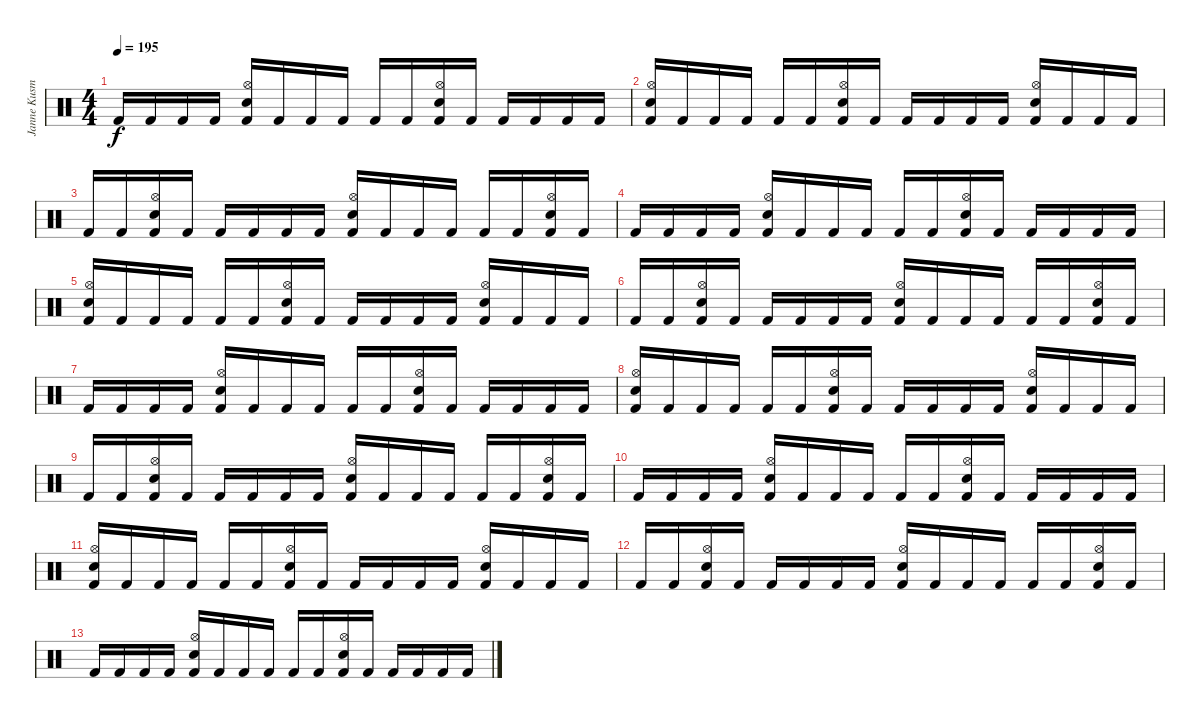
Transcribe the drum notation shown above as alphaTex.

\track ("Janne Kusmin" "Janne Kusm") {instrument percussion}
\staff {score}
\articulation defaults
\ts (4 4)
\tempo 195
\clef neutral
\ks c "Kick (hit) 2".16{dy f} "Kick (hit) 2".16 "Kick (hit) 2".16 "Kick (hit) 2".16
("Hi-Hat (open)" "Snare (hit) 2" "Kick (hit) 2").16 "Kick (hit) 2".16 "Kick (hit) 2".16 "Kick (hit) 2".16 "Kick (hit) 2".16 "Kick (hit) 2".16 ("Hi-Hat (open)" "Snare (hit) 2" "Kick (hit) 2").16 "Kick (hit) 2".16 "Kick (hit) 2".16 "Kick (hit) 2".16 "Kick (hit) 2".16 "Kick (hit) 2".16 |
("Hi-Hat (open)" "Snare (hit) 2" "Kick (hit) 2").16 "Kick (hit) 2".16 "Kick (hit) 2".16 "Kick (hit) 2".16 "Kick (hit) 2".16 "Kick (hit) 2".16 ("Hi-Hat (open)" "Snare (hit) 2" "Kick (hit) 2").16 "Kick (hit) 2".16 "Kick (hit) 2".16 "Kick (hit) 2".16 "Kick (hit) 2".16 "Kick (hit) 2".16 ("Hi-Hat (open)" "Snare (hit) 2" "Kick (hit) 2").16 "Kick (hit) 2".16 "Kick (hit) 2".16 "Kick (hit) 2".16 |
"Kick (hit) 2".16 "Kick (hit) 2".16 ("Hi-Hat (open)" "Snare (hit) 2" "Kick (hit) 2").16 "Kick (hit) 2".16 "Kick (hit) 2".16 "Kick (hit) 2".16 "Kick (hit) 2".16 "Kick (hit) 2".16 ("Hi-Hat (open)" "Snare (hit) 2" "Kick (hit) 2").16 "Kick (hit) 2".16 "Kick (hit) 2".16 "Kick (hit) 2".16 "Kick (hit) 2".16 "Kick (hit) 2".16 ("Hi-Hat (open)" "Snare (hit) 2" "Kick (hit) 2").16 "Kick (hit) 2".16 |
"Kick (hit) 2".16 "Kick (hit) 2".16 "Kick (hit) 2".16 "Kick (hit) 2".16 ("Hi-Hat (open)" "Snare (hit) 2" "Kick (hit) 2").16 "Kick (hit) 2".16 "Kick (hit) 2".16 "Kick (hit) 2".16 "Kick (hit) 2".16 "Kick (hit) 2".16 ("Hi-Hat (open)" "Snare (hit) 2" "Kick (hit) 2").16 "Kick (hit) 2".16 "Kick (hit) 2".16 "Kick (hit) 2".16 "Kick (hit) 2".16 "Kick (hit) 2".16 |
("Hi-Hat (open)" "Snare (hit) 2" "Kick (hit) 2").16 "Kick (hit) 2".16 "Kick (hit) 2".16 "Kick (hit) 2".16 "Kick (hit) 2".16 "Kick (hit) 2".16 ("Hi-Hat (open)" "Snare (hit) 2" "Kick (hit) 2").16 "Kick (hit) 2".16 "Kick (hit) 2".16 "Kick (hit) 2".16 "Kick (hit) 2".16 "Kick (hit) 2".16 ("Hi-Hat (open)" "Snare (hit) 2" "Kick (hit) 2").16 "Kick (hit) 2".16 "Kick (hit) 2".16 "Kick (hit) 2".16 |
"Kick (hit) 2".16 "Kick (hit) 2".16 ("Hi-Hat (open)" "Snare (hit) 2" "Kick (hit) 2").16 "Kick (hit) 2".16 "Kick (hit) 2".16 "Kick (hit) 2".16 "Kick (hit) 2".16 "Kick (hit) 2".16 ("Hi-Hat (open)" "Snare (hit) 2" "Kick (hit) 2").16 "Kick (hit) 2".16 "Kick (hit) 2".16 "Kick (hit) 2".16 "Kick (hit) 2".16 "Kick (hit) 2".16 ("Hi-Hat (open)" "Snare (hit) 2" "Kick (hit) 2").16 "Kick (hit) 2".16 |
"Kick (hit) 2".16 "Kick (hit) 2".16 "Kick (hit) 2".16 "Kick (hit) 2".16 ("Hi-Hat (open)" "Snare (hit) 2" "Kick (hit) 2").16 "Kick (hit) 2".16 "Kick (hit) 2".16 "Kick (hit) 2".16 "Kick (hit) 2".16 "Kick (hit) 2".16 ("Hi-Hat (open)" "Snare (hit) 2" "Kick (hit) 2").16 "Kick (hit) 2".16 "Kick (hit) 2".16 "Kick (hit) 2".16 "Kick (hit) 2".16 "Kick (hit) 2".16 |
("Hi-Hat (open)" "Snare (hit) 2" "Kick (hit) 2").16{volume 0} "Kick (hit) 2".16 "Kick (hit) 2".16 "Kick (hit) 2".16 "Kick (hit) 2".16 "Kick (hit) 2".16 ("Hi-Hat (open)" "Snare (hit) 2" "Kick (hit) 2").16 "Kick (hit) 2".16 "Kick (hit) 2".16 "Kick (hit) 2".16 "Kick (hit) 2".16 "Kick (hit) 2".16 ("Hi-Hat (open)" "Snare (hit) 2" "Kick (hit) 2").16 "Kick (hit) 2".16 "Kick (hit) 2".16 "Kick (hit) 2".16 |
"Kick (hit) 2".16 "Kick (hit) 2".16 ("Hi-Hat (open)" "Snare (hit) 2" "Kick (hit) 2").16 "Kick (hit) 2".16 "Kick (hit) 2".16 "Kick (hit) 2".16 "Kick (hit) 2".16 "Kick (hit) 2".16 ("Hi-Hat (open)" "Snare (hit) 2" "Kick (hit) 2").16 "Kick (hit) 2".16 "Kick (hit) 2".16 "Kick (hit) 2".16 "Kick (hit) 2".16 "Kick (hit) 2".16 ("Hi-Hat (open)" "Snare (hit) 2" "Kick (hit) 2").16 "Kick (hit) 2".16 |
"Kick (hit) 2".16 "Kick (hit) 2".16 "Kick (hit) 2".16 "Kick (hit) 2".16 ("Hi-Hat (open)" "Snare (hit) 2" "Kick (hit) 2").16 "Kick (hit) 2".16 "Kick (hit) 2".16 "Kick (hit) 2".16 "Kick (hit) 2".16 "Kick (hit) 2".16 ("Hi-Hat (open)" "Snare (hit) 2" "Kick (hit) 2").16 "Kick (hit) 2".16 "Kick (hit) 2".16 "Kick (hit) 2".16 "Kick (hit) 2".16 "Kick (hit) 2".16 |
("Hi-Hat (open)" "Snare (hit) 2" "Kick (hit) 2").16 "Kick (hit) 2".16 "Kick (hit) 2".16 "Kick (hit) 2".16 "Kick (hit) 2".16 "Kick (hit) 2".16 ("Hi-Hat (open)" "Snare (hit) 2" "Kick (hit) 2").16 "Kick (hit) 2".16 "Kick (hit) 2".16 "Kick (hit) 2".16 "Kick (hit) 2".16 "Kick (hit) 2".16 ("Hi-Hat (open)" "Snare (hit) 2" "Kick (hit) 2").16 "Kick (hit) 2".16 "Kick (hit) 2".16 "Kick (hit) 2".16 |
"Kick (hit) 2".16 "Kick (hit) 2".16 ("Hi-Hat (open)" "Snare (hit) 2" "Kick (hit) 2").16 "Kick (hit) 2".16 "Kick (hit) 2".16 "Kick (hit) 2".16 "Kick (hit) 2".16 "Kick (hit) 2".16 ("Hi-Hat (open)" "Snare (hit) 2" "Kick (hit) 2").16 "Kick (hit) 2".16 "Kick (hit) 2".16 "Kick (hit) 2".16 "Kick (hit) 2".16 "Kick (hit) 2".16 ("Hi-Hat (open)" "Snare (hit) 2" "Kick (hit) 2").16 "Kick (hit) 2".16 |
"Kick (hit) 2".16 "Kick (hit) 2".16 "Kick (hit) 2".16 "Kick (hit) 2".16 ("Hi-Hat (open)" "Snare (hit) 2" "Kick (hit) 2").16 "Kick (hit) 2".16 "Kick (hit) 2".16 "Kick (hit) 2".16 "Kick (hit) 2".16 "Kick (hit) 2".16 ("Hi-Hat (open)" "Snare (hit) 2" "Kick (hit) 2").16 "Kick (hit) 2".16 "Kick (hit) 2".16 "Kick (hit) 2".16 "Kick (hit) 2".16 "Kick (hit) 2".16
